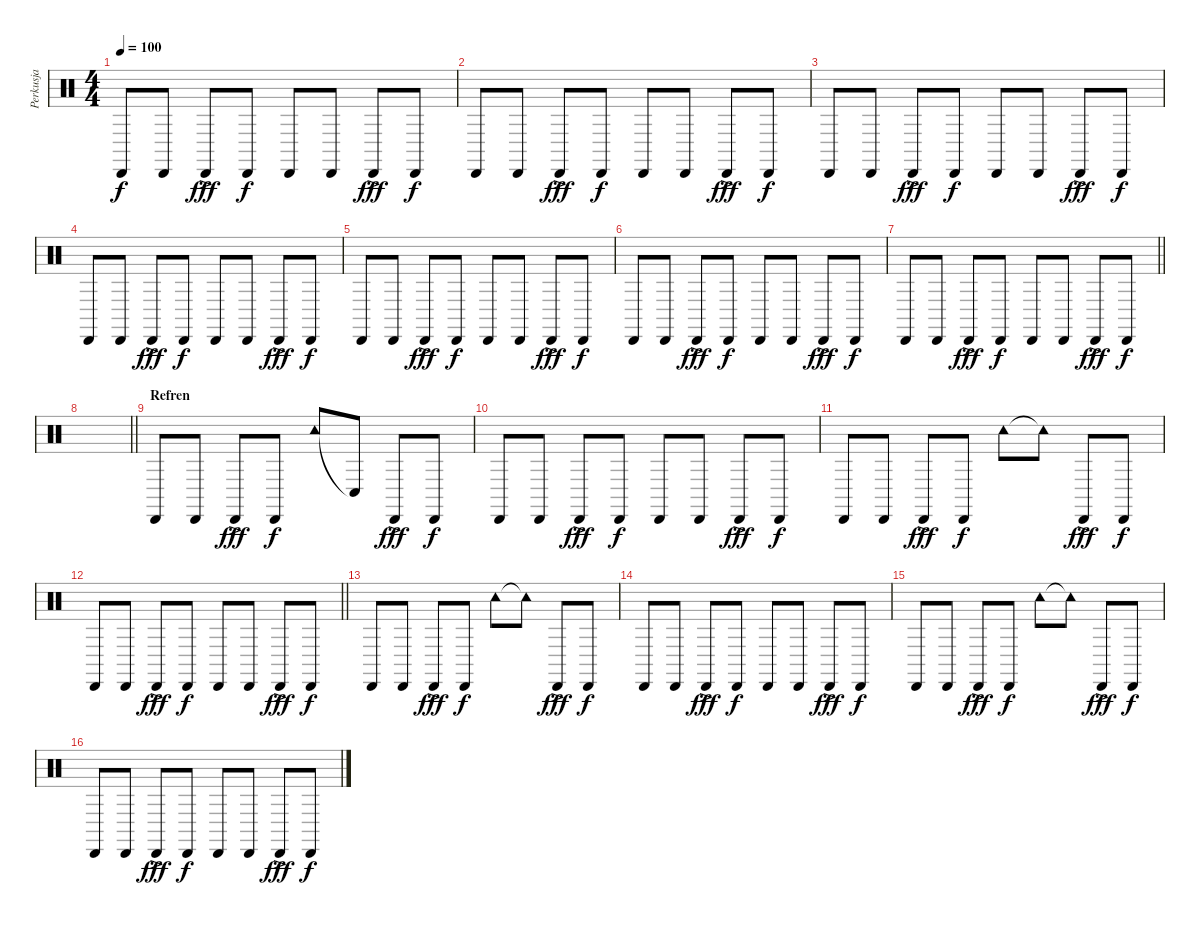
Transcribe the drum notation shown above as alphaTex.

\track ("Perkusja" "Perkusja") {instrument percussion}
\staff {score}
\articulation defaults
\ts (4 4)
\tempo 100
\clef neutral
\ks c "Cabasa (hit)".8{dy f} "Cabasa (hit)".8 "Cabasa (hit)"{ac}.8{dy fff} "Cabasa (hit)".8{dy f} "Cabasa (hit)".8 "Cabasa (hit)".8 "Cabasa (hit)"{ac}.8{dy fff} "Cabasa (hit)".8{dy f}
|
"Cabasa (hit)".8 "Cabasa (hit)".8 "Cabasa (hit)"{ac}.8{dy fff} "Cabasa (hit)".8{dy f} "Cabasa (hit)".8 "Cabasa (hit)".8 "Cabasa (hit)"{ac}.8{dy fff} "Cabasa (hit)".8{dy f} |
"Cabasa (hit)".8 "Cabasa (hit)".8 "Cabasa (hit)"{ac}.8{dy fff} "Cabasa (hit)".8{dy f} "Cabasa (hit)".8 "Cabasa (hit)".8 "Cabasa (hit)"{ac}.8{dy fff} "Cabasa (hit)".8{dy f} |
"Cabasa (hit)".8 "Cabasa (hit)".8 "Cabasa (hit)"{ac}.8{dy fff} "Cabasa (hit)".8{dy f} "Cabasa (hit)".8 "Cabasa (hit)".8 "Cabasa (hit)"{ac}.8{dy fff} "Cabasa (hit)".8{dy f} |
"Cabasa (hit)".8 "Cabasa (hit)".8 "Cabasa (hit)"{ac}.8{dy fff} "Cabasa (hit)".8{dy f} "Cabasa (hit)".8 "Cabasa (hit)".8 "Cabasa (hit)"{ac}.8{dy fff} "Cabasa (hit)".8{dy f} |
"Cabasa (hit)".8 "Cabasa (hit)".8 "Cabasa (hit)"{ac}.8{dy fff} "Cabasa (hit)".8{dy f} "Cabasa (hit)".8 "Cabasa (hit)".8 "Cabasa (hit)"{ac}.8{dy fff} "Cabasa (hit)".8{dy f} |
\barLineRight lightlight "Cabasa (hit)".8 "Cabasa (hit)".8 "Cabasa (hit)"{ac}.8{dy fff} "Cabasa (hit)".8{dy f} "Cabasa (hit)".8 "Cabasa (hit)".8 "Cabasa (hit)"{ac}.8{dy fff} "Cabasa (hit)".8{dy f}
|
\barLineRight lightlight
|
\section ("" "Refren")
"Cabasa (hit)".8 "Cabasa (hit)".8 "Cabasa (hit)"{ac}.8{dy fff} "Cabasa (hit)".8{dy f} "Tambourine (hit)".8 "Conga low (hit)"{t}.8 "Cabasa (hit)"{ac}.8{dy fff} "Cabasa (hit)".8{dy f} |
"Cabasa (hit)".8 "Cabasa (hit)".8 "Cabasa (hit)"{ac}.8{dy fff} "Cabasa (hit)".8{dy f} "Cabasa (hit)".8 "Cabasa (hit)".8 "Cabasa (hit)"{ac}.8{dy fff} "Cabasa (hit)".8{dy f} |
"Cabasa (hit)".8 "Cabasa (hit)".8 "Cabasa (hit)"{ac}.8{dy fff} "Cabasa (hit)".8{dy f} "Tambourine (hit)".8 "Tambourine (hit)"{t}.8 "Cabasa (hit)"{ac}.8{dy fff} "Cabasa (hit)".8{dy f} |
\barLineRight lightlight "Cabasa (hit)".8 "Cabasa (hit)".8 "Cabasa (hit)"{ac}.8{dy fff} "Cabasa (hit)".8{dy f} "Cabasa (hit)".8 "Cabasa (hit)".8 "Cabasa (hit)"{ac}.8{dy fff} "Cabasa (hit)".8{dy f}
|
"Cabasa (hit)".8 "Cabasa (hit)".8 "Cabasa (hit)"{ac}.8{dy fff} "Cabasa (hit)".8{dy f} "Tambourine (hit)".8 "Tambourine (hit)"{t}.8 "Cabasa (hit)"{ac}.8{dy fff} "Cabasa (hit)".8{dy f} |
"Cabasa (hit)".8 "Cabasa (hit)".8 "Cabasa (hit)"{ac}.8{dy fff} "Cabasa (hit)".8{dy f} "Cabasa (hit)".8 "Cabasa (hit)".8 "Cabasa (hit)"{ac}.8{dy fff} "Cabasa (hit)".8{dy f} |
"Cabasa (hit)".8 "Cabasa (hit)".8 "Cabasa (hit)"{ac}.8{dy fff} "Cabasa (hit)".8{dy f} "Tambourine (hit)".8 "Tambourine (hit)"{t}.8 "Cabasa (hit)"{ac}.8{dy fff} "Cabasa (hit)".8{dy f} |
"Cabasa (hit)".8 "Cabasa (hit)".8 "Cabasa (hit)"{ac}.8{dy fff} "Cabasa (hit)".8{dy f} "Cabasa (hit)".8 "Cabasa (hit)".8 "Cabasa (hit)"{ac}.8{dy fff} "Cabasa (hit)".8{dy f}
